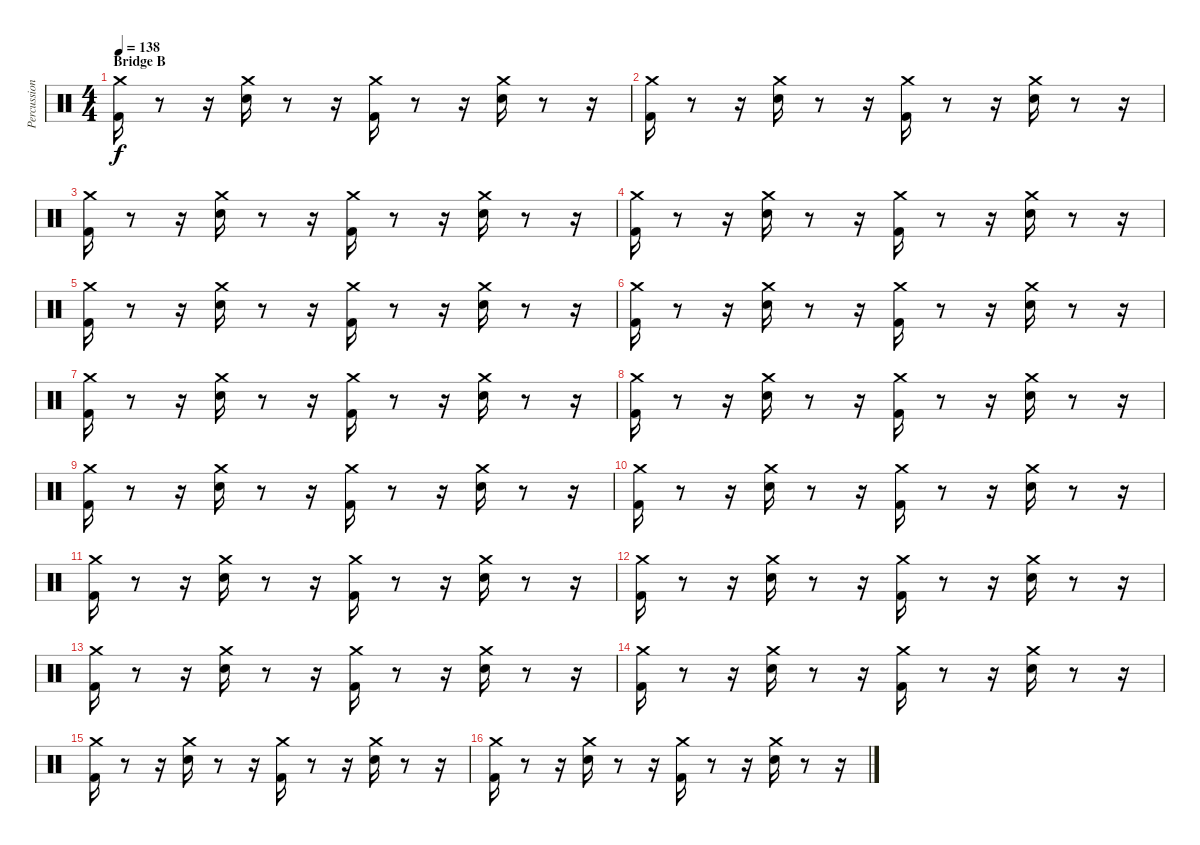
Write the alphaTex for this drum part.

\track ("Percussion" "Percussion") {instrument percussion}
\staff {score}
\articulation defaults
\ts (4 4)
\section ("" "Bridge B")
\tempo 138
\clef neutral
\ks c
("Kick (hit) 2" "Crash medium (hit)").16{dy f} r.8 r.16 ("Snare (hit) 2" "Crash medium (hit)").16 r.8 r.16 ("Kick (hit) 2" "Crash medium (hit)").16 r.8 r.16 ("Snare (hit) 2" "Crash medium (hit)").16 r.8 r.16 |
("Kick (hit) 2" "Crash medium (hit)").16 r.8 r.16 ("Snare (hit) 2" "Crash medium (hit)").16 r.8 r.16 ("Kick (hit) 2" "Crash medium (hit)").16 r.8 r.16 ("Snare (hit) 2" "Crash medium (hit)").16 r.8 r.16 |
("Kick (hit) 2" "Crash medium (hit)").16 r.8 r.16 ("Snare (hit) 2" "Crash medium (hit)").16 r.8 r.16 ("Kick (hit) 2" "Crash medium (hit)").16 r.8 r.16 ("Snare (hit) 2" "Crash medium (hit)").16 r.8 r.16 |
("Kick (hit) 2" "Crash medium (hit)").16 r.8 r.16 ("Snare (hit) 2" "Crash medium (hit)").16 r.8 r.16 ("Kick (hit) 2" "Crash medium (hit)").16 r.8 r.16 ("Snare (hit) 2" "Crash medium (hit)").16 r.8 r.16 |
("Kick (hit) 2" "Crash medium (hit)").16 r.8 r.16 ("Snare (hit) 2" "Crash medium (hit)").16 r.8 r.16 ("Kick (hit) 2" "Crash medium (hit)").16 r.8 r.16 ("Snare (hit) 2" "Crash medium (hit)").16 r.8 r.16 |
("Kick (hit) 2" "Crash medium (hit)").16 r.8 r.16 ("Snare (hit) 2" "Crash medium (hit)").16 r.8 r.16 ("Kick (hit) 2" "Crash medium (hit)").16 r.8 r.16 ("Snare (hit) 2" "Crash medium (hit)").16 r.8 r.16 |
("Kick (hit) 2" "Crash medium (hit)").16 r.8 r.16 ("Snare (hit) 2" "Crash medium (hit)").16 r.8 r.16 ("Kick (hit) 2" "Crash medium (hit)").16 r.8 r.16 ("Snare (hit) 2" "Crash medium (hit)").16 r.8 r.16 |
("Kick (hit) 2" "Crash medium (hit)").16 r.8 r.16 ("Snare (hit) 2" "Crash medium (hit)").16 r.8 r.16 ("Kick (hit) 2" "Crash medium (hit)").16 r.8 r.16 ("Snare (hit) 2" "Crash medium (hit)").16 r.8 r.16 |
("Kick (hit) 2" "Crash medium (hit)").16 r.8 r.16 ("Snare (hit) 2" "Crash medium (hit)").16 r.8 r.16 ("Kick (hit) 2" "Crash medium (hit)").16 r.8 r.16 ("Snare (hit) 2" "Crash medium (hit)").16 r.8 r.16 |
("Kick (hit) 2" "Crash medium (hit)").16 r.8 r.16 ("Snare (hit) 2" "Crash medium (hit)").16 r.8 r.16 ("Kick (hit) 2" "Crash medium (hit)").16 r.8 r.16 ("Snare (hit) 2" "Crash medium (hit)").16 r.8 r.16 |
("Kick (hit) 2" "Crash medium (hit)").16 r.8 r.16 ("Snare (hit) 2" "Crash medium (hit)").16 r.8 r.16 ("Kick (hit) 2" "Crash medium (hit)").16 r.8 r.16 ("Snare (hit) 2" "Crash medium (hit)").16 r.8 r.16 |
("Kick (hit) 2" "Crash medium (hit)").16 r.8 r.16 ("Snare (hit) 2" "Crash medium (hit)").16 r.8 r.16 ("Kick (hit) 2" "Crash medium (hit)").16 r.8 r.16 ("Snare (hit) 2" "Crash medium (hit)").16 r.8 r.16 |
("Kick (hit) 2" "Crash medium (hit)").16 r.8 r.16 ("Snare (hit) 2" "Crash medium (hit)").16 r.8 r.16 ("Kick (hit) 2" "Crash medium (hit)").16 r.8 r.16 ("Snare (hit) 2" "Crash medium (hit)").16 r.8 r.16 |
("Kick (hit) 2" "Crash medium (hit)").16 r.8 r.16 ("Snare (hit) 2" "Crash medium (hit)").16 r.8 r.16 ("Kick (hit) 2" "Crash medium (hit)").16 r.8 r.16 ("Snare (hit) 2" "Crash medium (hit)").16 r.8 r.16 |
("Kick (hit) 2" "Crash medium (hit)").16 r.8 r.16 ("Snare (hit) 2" "Crash medium (hit)").16 r.8 r.16 ("Kick (hit) 2" "Crash medium (hit)").16 r.8 r.16 ("Snare (hit) 2" "Crash medium (hit)").16 r.8 r.16 |
("Kick (hit) 2" "Crash medium (hit)").16 r.8 r.16 ("Snare (hit) 2" "Crash medium (hit)").16 r.8 r.16 ("Kick (hit) 2" "Crash medium (hit)").16 r.8 r.16 ("Snare (hit) 2" "Crash medium (hit)").16 r.8 r.16
